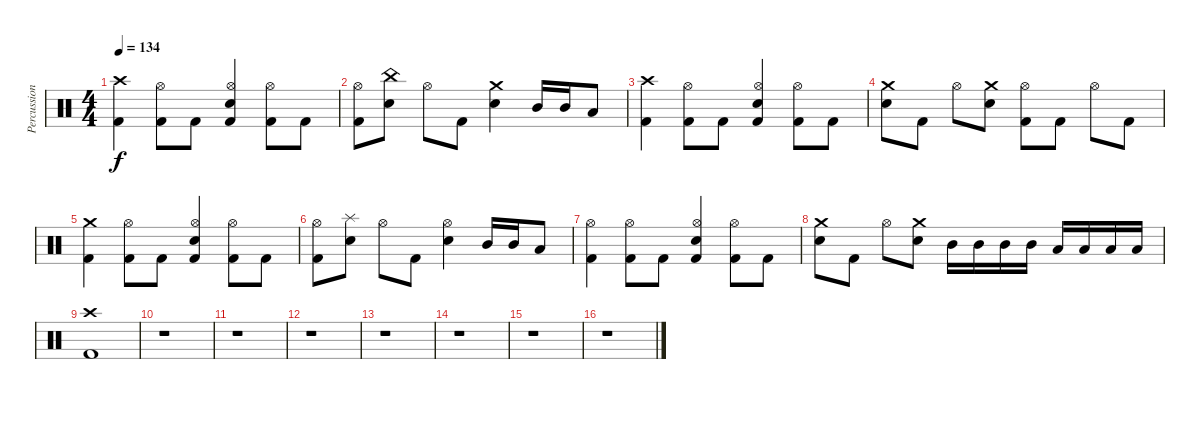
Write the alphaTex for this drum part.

\track ("Percussion" "Percussion") {instrument percussion}
\staff {score}
\articulation defaults
\ts (4 4)
\tempo 134
\clef neutral
\ks c
("Crash high (hit)" "Kick (hit) 2").4{dy f} ("Hi-Hat (open)" "Kick (hit) 2").8 "Kick (hit) 2".8 ("Hi-Hat (open)" "Snare (hit) 2" "Kick (hit) 2").4 ("Hi-Hat (open)" "Kick (hit) 2").8 "Kick (hit) 2".8 |
("Hi-Hat (open)" "Kick (hit) 2").8 ("China (hit)" "Snare (hit) 2").8 "Hi-Hat (open)".8 "Kick (hit) 2".8 ("Crash medium (hit)" "Snare (hit) 2").4 "Mid Tom (hit)".16 "Mid Tom (hit)".16 "Low Tom (hit)".8 |
("Crash high (hit)" "Kick (hit) 2").4 ("Hi-Hat (open)" "Kick (hit) 2").8 "Kick (hit) 2".8 ("Hi-Hat (open)" "Snare (hit) 2" "Kick (hit) 2").4 ("Hi-Hat (open)" "Kick (hit) 2").8 "Kick (hit) 2".8 |
("Crash medium (hit)" "Snare (hit) 2").8 "Kick (hit) 2".8 "Hi-Hat (open)".8 ("Crash medium (hit)" "Snare (hit) 2").8 ("Hi-Hat (open)" "Kick (hit) 2").8 "Kick (hit) 2".8 "Hi-Hat (open)".8 "Kick (hit) 2".8 |
("Crash medium (hit)" "Kick (hit) 2").4 ("Hi-Hat (open)" "Kick (hit) 2").8 "Kick (hit) 2".8 ("Hi-Hat (open)" "Snare (hit) 2" "Kick (hit) 2").4 ("Hi-Hat (open)" "Kick (hit) 2").8 "Kick (hit) 2".8 |
("Hi-Hat (open)" "Kick (hit) 2").8 ("Splash (hit)" "Snare (hit) 2").8 "Hi-Hat (open)".8 "Kick (hit) 2".8 ("Hi-Hat (open)" "Snare (hit) 2").4 "Mid Tom (hit)".16 "Mid Tom (hit)".16 "Low Tom (hit)".8 |
("Hi-Hat (open)" "Kick (hit) 2").4 ("Hi-Hat (open)" "Kick (hit) 2").8 "Kick (hit) 2".8 ("Hi-Hat (open)" "Snare (hit) 2" "Kick (hit) 2").4 ("Hi-Hat (open)" "Kick (hit) 2").8 "Kick (hit) 2".8 |
("Crash medium (hit)" "Snare (hit) 2").8 "Kick (hit) 2".8 "Hi-Hat (open)".8 ("Crash medium (hit)" "Snare (hit) 2").8 "Mid Tom (hit)".16 "Mid Tom (hit)".16 "Mid Tom (hit)".16 "Mid Tom (hit)".16 "Low Tom (hit)".16 "Low Tom (hit)".16 "Low Tom (hit)".16 "Low Tom (hit)".16 |
("Crash high (hit)" "Kick (hit) 2").1 |
r.1 |
r.1 |
r.1 |
r.1 |
r.1 |
r.1 |
r.1
